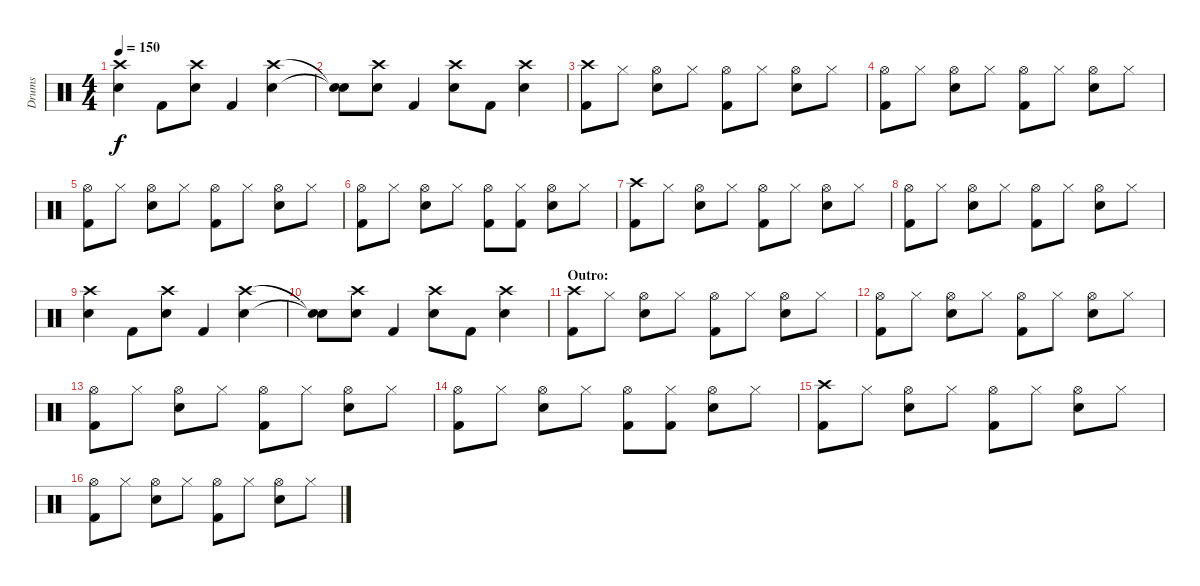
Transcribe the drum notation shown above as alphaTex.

\track ("Drums" "Drums") {instrument percussion}
\staff {score}
\articulation defaults
\ts (4 4)
\tempo 150
\clef neutral
\ks c
("Crash high (hit)" "Snare (hit) 2").4{dy f} "Kick (hit) 2".8 ("Crash high (hit)" "Snare (hit) 2").8 "Kick (hit) 2".4 ("Crash high (hit)" "Snare (hit) 2").4 |
("Snare (hit)"{t} "Snare (hit)"{t}).8 ("Crash high (hit)" "Snare (hit) 2").8 "Kick (hit) 2".4 ("Crash high (hit)" "Snare (hit) 2").8 "Kick (hit) 2".8 ("Crash high (hit)" "Snare (hit) 2").4 |
("Crash high (hit)" "Kick (hit) 2").8 "Hi-Hat (closed)".8 ("Hi-Hat (open)" "Snare (hit) 2").8 "Hi-Hat (closed)".8 ("Hi-Hat (open)" "Kick (hit) 2").8 "Hi-Hat (closed)".8 ("Hi-Hat (open)" "Snare (hit) 2").8 "Hi-Hat (closed)".8 |
("Hi-Hat (open)" "Kick (hit) 2").8 "Hi-Hat (closed)".8 ("Hi-Hat (open)" "Snare (hit) 2").8 "Hi-Hat (closed)".8 ("Hi-Hat (open)" "Kick (hit) 2").8 "Hi-Hat (closed)".8 ("Hi-Hat (open)" "Snare (hit) 2").8 "Hi-Hat (closed)".8 |
("Hi-Hat (open)" "Kick (hit) 2").8 "Hi-Hat (closed)".8 ("Hi-Hat (open)" "Snare (hit) 2").8 "Hi-Hat (closed)".8 ("Hi-Hat (open)" "Kick (hit) 2").8 "Hi-Hat (closed)".8 ("Hi-Hat (open)" "Snare (hit) 2").8 "Hi-Hat (closed)".8 |
("Hi-Hat (open)" "Kick (hit) 2").8 "Hi-Hat (closed)".8 ("Hi-Hat (open)" "Snare (hit) 2").8 "Hi-Hat (closed)".8 ("Hi-Hat (open)" "Kick (hit) 2").8 ("Hi-Hat (closed)" "Kick (hit) 2").8 ("Hi-Hat (open)" "Snare (hit) 2").8 "Hi-Hat (closed)".8 |
("Crash high (hit)" "Kick (hit) 2").8 "Hi-Hat (closed)".8 ("Hi-Hat (open)" "Snare (hit) 2").8 "Hi-Hat (closed)".8 ("Hi-Hat (open)" "Kick (hit) 2").8 "Hi-Hat (closed)".8 ("Hi-Hat (open)" "Snare (hit) 2").8 "Hi-Hat (closed)".8 |
("Hi-Hat (open)" "Kick (hit) 2").8 "Hi-Hat (closed)".8 ("Hi-Hat (open)" "Snare (hit) 2").8 "Hi-Hat (closed)".8 ("Hi-Hat (open)" "Kick (hit) 2").8 "Hi-Hat (closed)".8 ("Hi-Hat (open)" "Snare (hit) 2").8 "Hi-Hat (closed)".8 |
("Crash high (hit)" "Snare (hit) 2").4 "Kick (hit) 2".8 ("Crash high (hit)" "Snare (hit) 2").8 "Kick (hit) 2".4 ("Crash high (hit)" "Snare (hit) 2").4 |
("Snare (hit)"{t} "Snare (hit)"{t}).8 ("Crash high (hit)" "Snare (hit) 2").8 "Kick (hit) 2".4 ("Crash high (hit)" "Snare (hit) 2").8 "Kick (hit) 2".8 ("Crash high (hit)" "Snare (hit) 2").4 |
\section ("" "Outro:")
("Crash high (hit)" "Kick (hit) 2").8 "Hi-Hat (closed)".8 ("Hi-Hat (open)" "Snare (hit) 2").8 "Hi-Hat (closed)".8 ("Hi-Hat (open)" "Kick (hit) 2").8 "Hi-Hat (closed)".8 ("Hi-Hat (open)" "Snare (hit) 2").8 "Hi-Hat (closed)".8 |
("Hi-Hat (open)" "Kick (hit) 2").8 "Hi-Hat (closed)".8 ("Hi-Hat (open)" "Snare (hit) 2").8 "Hi-Hat (closed)".8 ("Hi-Hat (open)" "Kick (hit) 2").8 "Hi-Hat (closed)".8 ("Hi-Hat (open)" "Snare (hit) 2").8 "Hi-Hat (closed)".8 |
("Hi-Hat (open)" "Kick (hit) 2").8 "Hi-Hat (closed)".8 ("Hi-Hat (open)" "Snare (hit) 2").8 "Hi-Hat (closed)".8 ("Hi-Hat (open)" "Kick (hit) 2").8 "Hi-Hat (closed)".8 ("Hi-Hat (open)" "Snare (hit) 2").8 "Hi-Hat (closed)".8 |
("Hi-Hat (open)" "Kick (hit) 2").8 "Hi-Hat (closed)".8 ("Hi-Hat (open)" "Snare (hit) 2").8 "Hi-Hat (closed)".8 ("Hi-Hat (open)" "Kick (hit) 2").8 ("Hi-Hat (closed)" "Kick (hit) 2").8 ("Hi-Hat (open)" "Snare (hit) 2").8 "Hi-Hat (closed)".8 |
("Crash high (hit)" "Kick (hit) 2").8 "Hi-Hat (closed)".8 ("Hi-Hat (open)" "Snare (hit) 2").8 "Hi-Hat (closed)".8 ("Hi-Hat (open)" "Kick (hit) 2").8 "Hi-Hat (closed)".8 ("Hi-Hat (open)" "Snare (hit) 2").8 "Hi-Hat (closed)".8 |
("Hi-Hat (open)" "Kick (hit) 2").8 "Hi-Hat (closed)".8 ("Hi-Hat (open)" "Snare (hit) 2").8 "Hi-Hat (closed)".8 ("Hi-Hat (open)" "Kick (hit) 2").8 "Hi-Hat (closed)".8 ("Hi-Hat (open)" "Snare (hit) 2").8 "Hi-Hat (closed)".8
